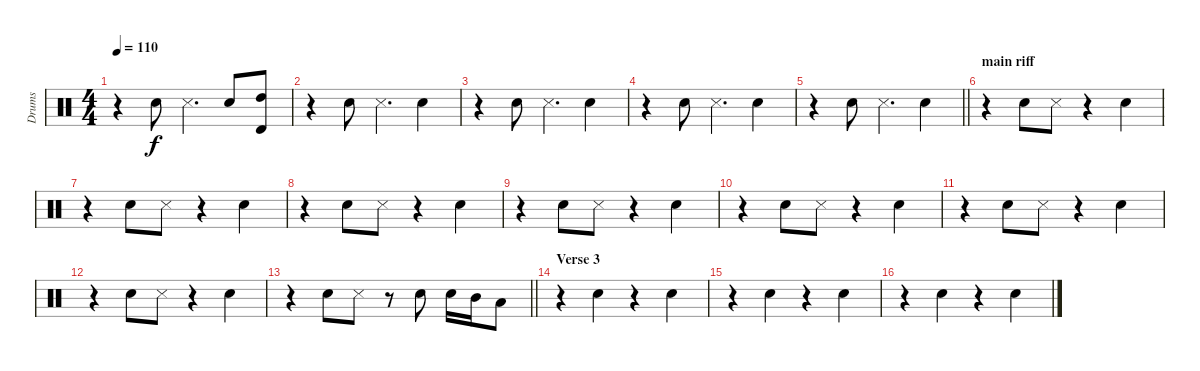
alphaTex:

\track ("Drums" "Drums") {instrument percussion}
\staff {score}
\articulation defaults
\ts (4 4)
\tempo 110
\clef neutral
\ks c
r.4{dy f} "Snare (hit) 2".8 "Snare (side stick) 3".4{d} "Snare (hit) 2".8 ("High Tom (hit)" "Timbale high (hit)").8 |
r.4 "Snare (hit) 2".8 "Snare (side stick) 3".4{d} "Snare (hit) 2".4 |
r.4 "Snare (hit) 2".8 "Snare (side stick) 3".4{d} "Snare (hit) 2".4 |
r.4 "Snare (hit) 2".8 "Snare (side stick) 3".4{d} "Snare (hit) 2".4 |
\barLineRight lightlight
r.4 "Snare (hit) 2".8 "Snare (side stick) 3".4{d} "Snare (hit) 2".4 |
\section ("" "main riff")
r.4 "Snare (hit) 2".8 "Snare (side stick) 3".8 r.4 "Snare (hit) 2".4 |
r.4 "Snare (hit) 2".8 "Snare (side stick) 3".8 r.4 "Snare (hit) 2".4 |
r.4 "Snare (hit) 2".8 "Snare (side stick) 3".8 r.4 "Snare (hit) 2".4 |
r.4 "Snare (hit) 2".8 "Snare (side stick) 3".8 r.4 "Snare (hit) 2".4 |
r.4 "Snare (hit) 2".8 "Snare (side stick) 3".8 r.4 "Snare (hit) 2".4 |
r.4 "Snare (hit) 2".8 "Snare (side stick) 3".8 r.4 "Snare (hit) 2".4 |
r.4 "Snare (hit) 2".8 "Snare (side stick) 3".8 r.4 "Snare (hit) 2".4 |
\barLineRight lightlight
r.4 "Snare (hit) 2".8 "Snare (side stick) 3".8 r.8 "Snare (hit) 2".8 "Snare (hit) 2".16 "Mid Tom (hit)".16 "Low Tom (hit)".8 |
\section ("" "Verse 3")
r.4 "Snare (hit) 2".4 r.4 "Snare (hit) 2".4 |
r.4 "Snare (hit) 2".4 r.4 "Snare (hit) 2".4 |
r.4 "Snare (hit) 2".4 r.4 "Snare (hit) 2".4
